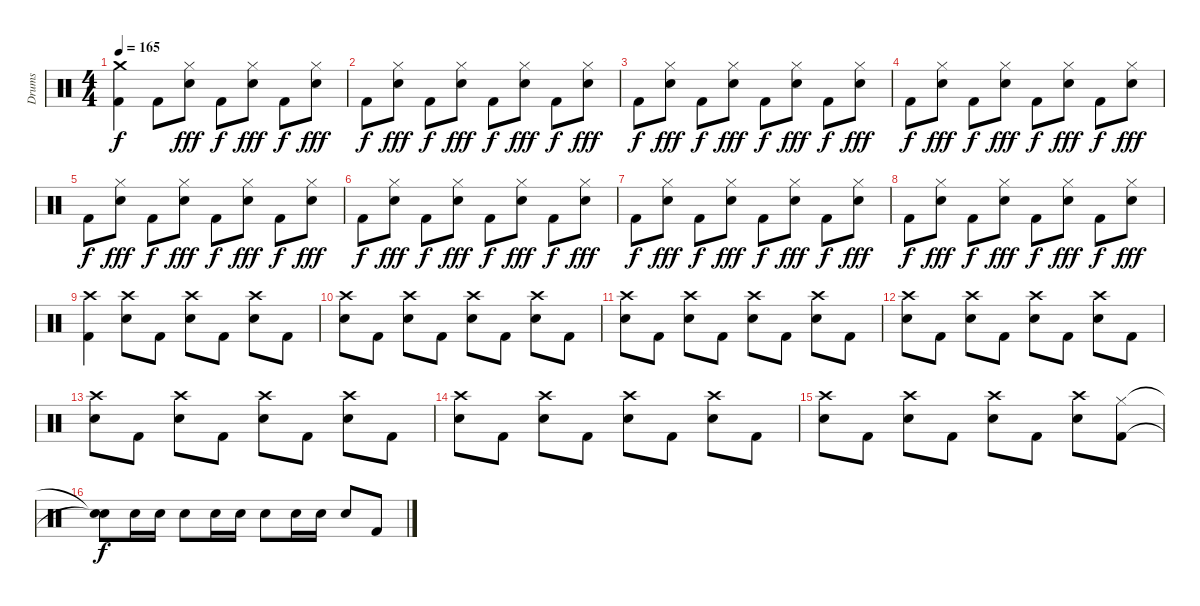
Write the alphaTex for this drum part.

\track ("Drums" "Drums") {instrument percussion}
\staff {score}
\articulation defaults
\ts (4 4)
\tempo 165
\clef neutral
\ks c
("Crash medium (hit)" "Kick (hit) 2").4{dy f} "Kick (hit) 2".8 ("Hi-Hat (closed)" "Snare (hit) 2").8{dy fff} "Kick (hit) 2".8{dy f} ("Hi-Hat (closed)" "Snare (hit) 2").8{dy fff} "Kick (hit) 2".8{dy f} ("Hi-Hat (closed)" "Snare (hit) 2").8{dy fff} |
"Kick (hit) 2".8{dy f} ("Hi-Hat (closed)" "Snare (hit) 2").8{dy fff} "Kick (hit) 2".8{dy f} ("Hi-Hat (closed)" "Snare (hit) 2").8{dy fff} "Kick (hit) 2".8{dy f} ("Hi-Hat (closed)" "Snare (hit) 2").8{dy fff} "Kick (hit) 2".8{dy f} ("Hi-Hat (closed)" "Snare (hit) 2").8{dy fff} |
"Kick (hit) 2".8{dy f} ("Hi-Hat (closed)" "Snare (hit) 2").8{dy fff} "Kick (hit) 2".8{dy f} ("Hi-Hat (closed)" "Snare (hit) 2").8{dy fff} "Kick (hit) 2".8{dy f} ("Hi-Hat (closed)" "Snare (hit) 2").8{dy fff} "Kick (hit) 2".8{dy f} ("Hi-Hat (closed)" "Snare (hit) 2").8{dy fff} |
"Kick (hit) 2".8{dy f} ("Hi-Hat (closed)" "Snare (hit) 2").8{dy fff} "Kick (hit) 2".8{dy f} ("Hi-Hat (closed)" "Snare (hit) 2").8{dy fff} "Kick (hit) 2".8{dy f} ("Hi-Hat (closed)" "Snare (hit) 2").8{dy fff} "Kick (hit) 2".8{dy f} ("Hi-Hat (closed)" "Snare (hit) 2").8{dy fff} |
"Kick (hit) 2".8{dy f} ("Hi-Hat (closed)" "Snare (hit) 2").8{dy fff} "Kick (hit) 2".8{dy f} ("Hi-Hat (closed)" "Snare (hit) 2").8{dy fff} "Kick (hit) 2".8{dy f} ("Hi-Hat (closed)" "Snare (hit) 2").8{dy fff} "Kick (hit) 2".8{dy f} ("Hi-Hat (closed)" "Snare (hit) 2").8{dy fff} |
"Kick (hit) 2".8{dy f} ("Hi-Hat (closed)" "Snare (hit) 2").8{dy fff} "Kick (hit) 2".8{dy f} ("Hi-Hat (closed)" "Snare (hit) 2").8{dy fff} "Kick (hit) 2".8{dy f} ("Hi-Hat (closed)" "Snare (hit) 2").8{dy fff} "Kick (hit) 2".8{dy f} ("Hi-Hat (closed)" "Snare (hit) 2").8{dy fff} |
"Kick (hit) 2".8{dy f} ("Hi-Hat (closed)" "Snare (hit) 2").8{dy fff} "Kick (hit) 2".8{dy f} ("Hi-Hat (closed)" "Snare (hit) 2").8{dy fff} "Kick (hit) 2".8{dy f} ("Hi-Hat (closed)" "Snare (hit) 2").8{dy fff} "Kick (hit) 2".8{dy f} ("Hi-Hat (closed)" "Snare (hit) 2").8{dy fff} |
"Kick (hit) 2".8{dy f} ("Hi-Hat (closed)" "Snare (hit) 2").8{dy fff} "Kick (hit) 2".8{dy f} ("Hi-Hat (closed)" "Snare (hit) 2").8{dy fff} "Kick (hit) 2".8{dy f} ("Hi-Hat (closed)" "Snare (hit) 2").8{dy fff} "Kick (hit) 2".8{dy f} ("Hi-Hat (closed)" "Snare (hit) 2").8{dy fff} |
("Crash high (hit)" "Kick (hit) 2").4 ("Crash high (hit)" "Snare (hit) 2").8 "Kick (hit) 2".8 ("Crash high (hit)" "Snare (hit) 2").8 "Kick (hit) 2".8 ("Crash high (hit)" "Snare (hit) 2").8 "Kick (hit) 2".8 |
("Crash high (hit)" "Snare (hit) 2").8 "Kick (hit) 2".8 ("Crash high (hit)" "Snare (hit) 2").8 "Kick (hit) 2".8 ("Crash high (hit)" "Snare (hit) 2").8 "Kick (hit) 2".8 ("Crash high (hit)" "Snare (hit) 2").8 "Kick (hit) 2".8 |
("Crash high (hit)" "Snare (hit) 2").8 "Kick (hit) 2".8 ("Crash high (hit)" "Snare (hit) 2").8 "Kick (hit) 2".8 ("Crash high (hit)" "Snare (hit) 2").8 "Kick (hit) 2".8 ("Crash high (hit)" "Snare (hit) 2").8 "Kick (hit) 2".8 |
("Crash high (hit)" "Snare (hit) 2").8 "Kick (hit) 2".8 ("Crash high (hit)" "Snare (hit) 2").8 "Kick (hit) 2".8 ("Crash high (hit)" "Snare (hit) 2").8 "Kick (hit) 2".8 ("Crash high (hit)" "Snare (hit) 2").8 "Kick (hit) 2".8 |
("Crash high (hit)" "Snare (hit) 2").8 "Kick (hit) 2".8 ("Crash high (hit)" "Snare (hit) 2").8 "Kick (hit) 2".8 ("Crash high (hit)" "Snare (hit) 2").8 "Kick (hit) 2".8 ("Crash high (hit)" "Snare (hit) 2").8 "Kick (hit) 2".8 |
("Crash high (hit)" "Snare (hit) 2").8 "Kick (hit) 2".8 ("Crash high (hit)" "Snare (hit) 2").8 "Kick (hit) 2".8 ("Crash high (hit)" "Snare (hit) 2").8 "Kick (hit) 2".8 ("Crash high (hit)" "Snare (hit) 2").8 "Kick (hit) 2".8 |
("Crash high (hit)" "Snare (hit) 2").8 "Kick (hit) 2".8 ("Crash high (hit)" "Snare (hit) 2").8 "Kick (hit) 2".8 ("Crash high (hit)" "Snare (hit) 2").8 "Kick (hit) 2".8 ("Crash high (hit)" "Snare (hit) 2").8 ("Hi-Hat (closed)" "Kick (hit) 2").8 |
("Snare (hit)"{t} "Snare (hit)"{t}).8{dy f} "Snare (hit) 2".16 "Snare (hit) 2".16 "Snare (hit) 2".8 "Snare (hit) 2".16 "Snare (hit) 2".16 "Snare (hit) 2".8 "Snare (hit) 2".16 "Snare (hit) 2".16 "Snare (hit) 2".8 "Kick (hit) 2".8
